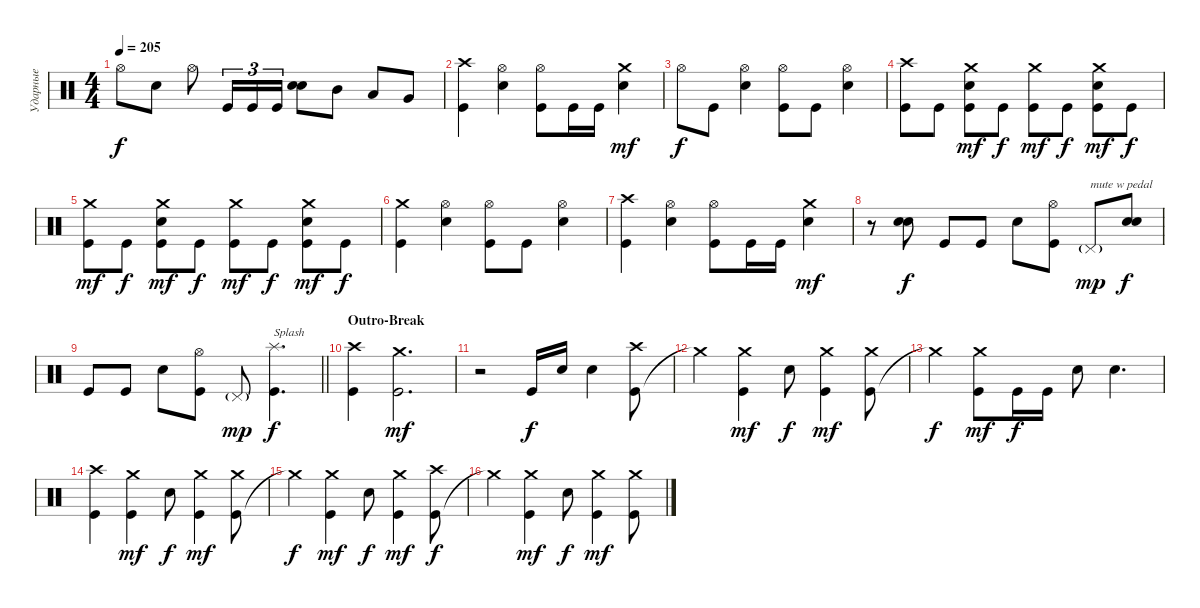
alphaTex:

\track ("Ударные" "Ударные") {instrument percussion}
\staff {score}
\articulation defaults
\ts (4 4)
\tempo 205
\clef neutral
\ks aminor "Hi-Hat (open)".8{dy f} "Snare (hit) 2".8 "Hi-Hat (open)".8 "Kick (hit)".16{tu (3 2)} "Kick (hit)".16{tu (3 2)} "Kick (hit)".16{tu (3 2)}
("Snare (hit) 2" "Snare (hit) 2").8{bd 240} "Mid Tom (hit)".8 "Low Tom (hit)".8 "Very Low Tom (hit)".8 |
("Kick (hit)" "Crash high (hit)").4 ("Snare (hit) 2" "Hi-Hat (open)").4 ("Kick (hit)" "Hi-Hat (open)").8 "Kick (hit)".16 "Kick (hit)".16 ("Snare (hit) 2" "Crash medium (hit)").4{dy mf} |
"Hi-Hat (open)".8{dy f} "Kick (hit)".8 ("Snare (hit) 2" "Hi-Hat (open)").4 ("Kick (hit)" "Hi-Hat (open)").8 "Kick (hit)".8 ("Snare (hit) 2" "Hi-Hat (open)").4 |
("Kick (hit)" "Crash high (hit)").8 "Kick (hit)".8 ("Kick (hit)" "Snare (hit) 2" "Crash medium (hit)").8{dy mf} "Kick (hit)".8{dy f} ("Kick (hit)" "Crash medium (hit)").8{dy mf} "Kick (hit)".8{dy f} ("Kick (hit)" "Snare (hit) 2" "Crash medium (hit)").8{dy mf} "Kick (hit)".8{dy f} |
("Kick (hit)" "Crash medium (hit)").8{dy mf} "Kick (hit)".8{dy f} ("Kick (hit)" "Snare (hit) 2" "Crash medium (hit)").8{dy mf} "Kick (hit)".8{dy f} ("Kick (hit)" "Crash medium (hit)").8{dy mf} "Kick (hit)".8{dy f} ("Kick (hit)" "Snare (hit) 2" "Crash medium (hit)").8{dy mf} "Kick (hit)".8{dy f} |
("Kick (hit)" "Crash medium (hit)").4 ("Snare (hit) 2" "Hi-Hat (open)").4 ("Kick (hit)" "Hi-Hat (open)").8 "Kick (hit)".8 ("Snare (hit) 2" "Hi-Hat (open)").4 |
("Kick (hit)" "Crash high (hit)").4 ("Snare (hit) 2" "Hi-Hat (open)").4 ("Kick (hit)" "Hi-Hat (open)").8 "Kick (hit)".16 "Kick (hit)".16 ("Snare (hit) 2" "Crash medium (hit)").4{dy mf} |
r.8 ("Snare (hit) 2" "Snare (hit) 2").8{bd 240 dy f} "Kick (hit)".8 "Kick (hit)".8 "Snare (hit) 2".8 ("Kick (hit)" "Hi-Hat (open)").8 "Pedal Hi-Hat (hit)"{g}.8{txt "mute w pedal" dy mp} ("Snare (hit) 2" "Snare (hit) 2").8{bd 240 dy f} |
\barLineRight lightlight "Kick (hit)".8 "Kick (hit)".8 "Snare (hit) 2".8
("Kick (hit)" "Hi-Hat (open)").8 "Pedal Hi-Hat (hit)"{g}.8{dy mp} ("Kick (hit)" "Splash (hit)").4{d txt "Splash" dy f} |
\section ("" "Outro-Break")
("Kick (hit)" "Crash high (hit)").4 ("Kick (hit)" "Crash medium (hit)").2{d dy mf} |
r.2 "Kick (hit)".16{dy f} "Snare (hit) 2".16 "Snare (hit) 2".4 ("Kick (hit)" "Crash high (hit)").8 |
"Crash medium (hit)"{t}.4 ("Kick (hit)" "Crash medium (hit)").4{dy mf} "Snare (hit) 2".8{dy f} ("Kick (hit)" "Crash medium (hit)").4{dy mf} ("Kick (hit)" "Crash medium (hit)").8 |
"Crash medium (hit)"{t}.4{dy f} ("Kick (hit)" "Crash medium (hit)").8{dy mf} "Kick (hit)".16{dy f} "Kick (hit)".16 "Snare (hit) 2".8 "Snare (hit) 2".4{d} |
("Kick (hit)" "Crash high (hit)").4 ("Kick (hit)" "Crash medium (hit)").4{dy mf} "Snare (hit) 2".8{dy f} ("Kick (hit)" "Crash medium (hit)").4{dy mf} ("Kick (hit)" "Crash medium (hit)").8 |
"Crash medium (hit)"{t}.4{dy f} ("Kick (hit)" "Crash medium (hit)").4{dy mf} "Snare (hit) 2".8{dy f} ("Kick (hit)" "Crash medium (hit)").4{dy mf} ("Kick (hit)" "Crash high (hit)").8{dy f} |
"Crash medium (hit)"{t}.4 ("Kick (hit)" "Crash medium (hit)").4{dy mf} "Snare (hit) 2".8{dy f} ("Kick (hit)" "Crash medium (hit)").4{dy mf} ("Kick (hit)" "Crash medium (hit)").8
